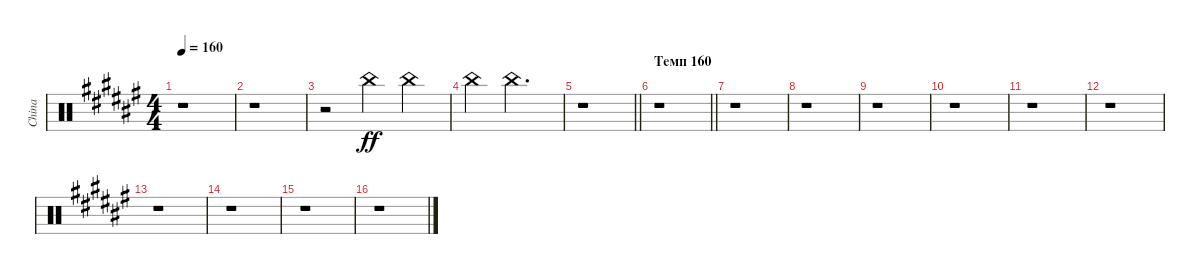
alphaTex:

\track ("China" "China") {instrument percussion}
\staff {score}
\articulation defaults
\ts (4 4)
\tempo 160
\clef neutral
\ks d#minor
r.1{dy ff} |
r.1 |
r.2 "China (hit)".4 "China (hit)".4 |
"China (hit)".4 "China (hit)".2{d} |
\barLineRight lightlight
r.1 |
\section ("" "Темп 160")
\barLineRight lightlight
r.1 |
r.1 |
r.1 |
r.1 |
r.1 |
r.1 |
r.1 |
r.1 |
r.1 |
r.1 |
r.1
